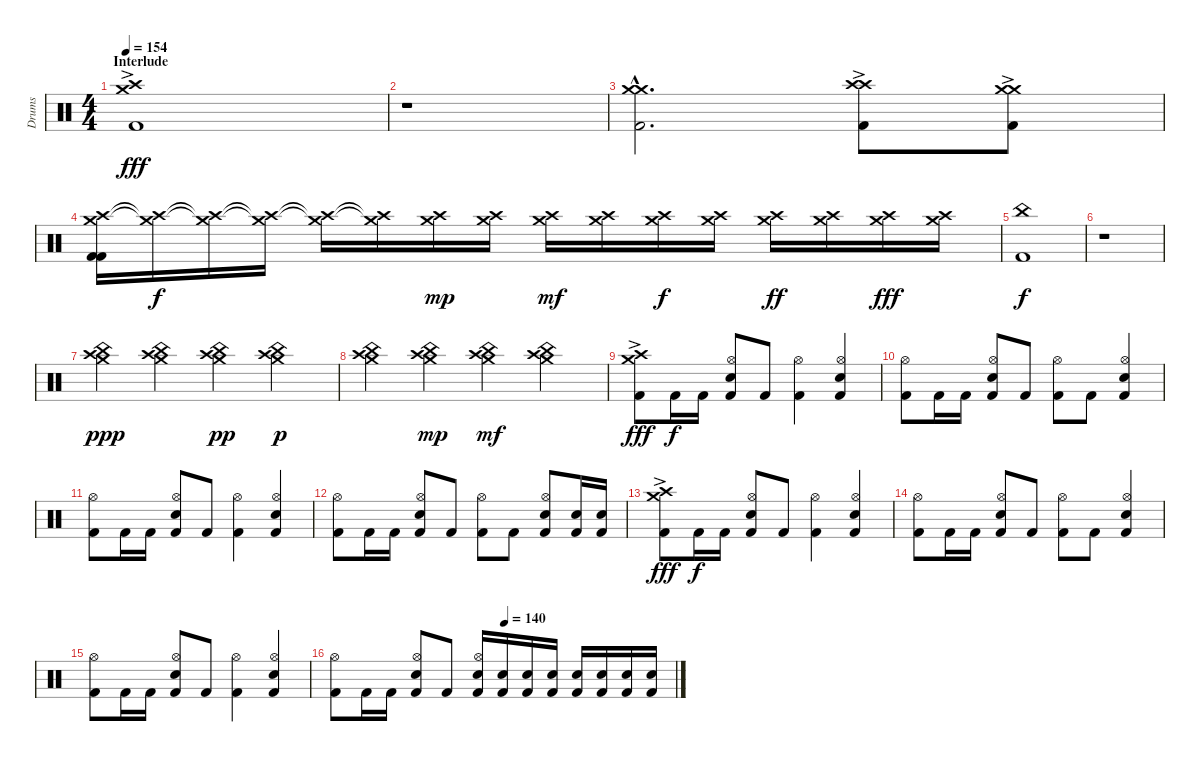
\track ("Drums" "Drums") {instrument percussion}
\staff {score}
\articulation defaults
\ts (4 4)
\section ("" "Interlude")
\tempo 154
\clef neutral
\ks c
("Crash high (hit)" "Crash medium (hit)"{ac} "Kick (hit) 2").1{dy fff} |
r.1 |
("Crash medium (hit)"{hac} "Crash medium (hit)"{hac} "Kick (hit) 2"{hac}).2{d} ("Crash high (hit)"{ac} "Crash high (hit)"{ac} "Kick (hit) 2").8 ("Crash medium (hit)"{ac} "Crash medium (hit)"{ac} "Kick (hit) 2").8 |
("Crash high (hit)" "Crash medium (hit)" "Kick (hit) 2" "Kick (hit) 2").16 ("Crash high (hit)"{t} "Crash medium (hit)"{t}).16{dy f} ("Crash high (hit)"{t} "Crash medium (hit)"{t}).16 ("Crash high (hit)"{t} "Crash medium (hit)"{t}).16 ("Crash high (hit)"{t} "Crash medium (hit)"{t}).16 ("Crash high (hit)"{t} "Crash medium (hit)"{t}).16 ("Crash high (hit)" "Crash medium (hit)").16{dy mp} ("Crash high (hit)" "Crash medium (hit)").16 ("Crash high (hit)" "Crash medium (hit)").16{dy mf} ("Crash high (hit)" "Crash medium (hit)").16 ("Crash high (hit)" "Crash medium (hit)").16{dy f} ("Crash high (hit)" "Crash medium (hit)").16 ("Crash high (hit)" "Crash medium (hit)").16{dy ff} ("Crash high (hit)" "Crash medium (hit)").16 ("Crash high (hit)" "Crash medium (hit)").16{dy fff} ("Crash high (hit)" "Crash medium (hit)").16 |
("China (hit)" "Kick (hit) 2").1{dy f} |
r.1 |
("Crash high (hit)" "Crash medium (hit)" "China (hit)").4{dy ppp} ("Crash high (hit)" "Crash medium (hit)" "China (hit)").4 ("Crash high (hit)" "Crash medium (hit)" "China (hit)").4{dy pp} ("Crash high (hit)" "Crash medium (hit)" "China (hit)").4{dy p} |
("Crash high (hit)" "Crash medium (hit)" "China (hit)").4 ("Crash high (hit)" "Crash medium (hit)" "China (hit)").4{dy mp} ("Crash high (hit)" "Crash medium (hit)" "China (hit)").4{dy mf} ("Crash high (hit)" "Crash medium (hit)" "China (hit)").4 |
("Crash medium (hit)"{ac} "Crash high (hit)"{ac} "Kick (hit) 2").8{dy fff} "Kick (hit) 2".16{dy f} "Kick (hit) 2".16 ("Hi-Hat (open)" "Electric Snare (hit)" "Kick (hit) 2").8 "Kick (hit) 2".8 ("Hi-Hat (open)" "Kick (hit) 2").4 ("Hi-Hat (open)" "Electric Snare (hit)" "Kick (hit) 2").4 |
("Hi-Hat (open)" "Kick (hit) 2").8 "Kick (hit) 2".16 "Kick (hit) 2".16 ("Hi-Hat (open)" "Electric Snare (hit)" "Kick (hit) 2").8 "Kick (hit) 2".8 ("Hi-Hat (open)" "Kick (hit) 2").8 "Kick (hit) 2".8 ("Hi-Hat (open)" "Electric Snare (hit)" "Kick (hit) 2").4 |
("Hi-Hat (open)" "Kick (hit) 2").8 "Kick (hit) 2".16 "Kick (hit) 2".16 ("Hi-Hat (open)" "Electric Snare (hit)" "Kick (hit) 2").8 "Kick (hit) 2".8 ("Hi-Hat (open)" "Kick (hit) 2").4 ("Hi-Hat (open)" "Electric Snare (hit)" "Kick (hit) 2").4 |
("Hi-Hat (open)" "Kick (hit) 2").8 "Kick (hit) 2".16 "Kick (hit) 2".16 ("Hi-Hat (open)" "Electric Snare (hit)" "Kick (hit) 2").8 "Kick (hit) 2".8 ("Hi-Hat (open)" "Kick (hit) 2").8 "Kick (hit) 2".8 ("Hi-Hat (open)" "Electric Snare (hit)" "Kick (hit) 2").8 ("Electric Snare (hit)" "Kick (hit) 2").16 ("Electric Snare (hit)" "Kick (hit) 2").16 |
("Crash medium (hit)"{ac} "Crash high (hit)"{ac} "Kick (hit) 2").8{dy fff} "Kick (hit) 2".16{dy f} "Kick (hit) 2".16 ("Hi-Hat (open)" "Electric Snare (hit)" "Kick (hit) 2").8 "Kick (hit) 2".8 ("Hi-Hat (open)" "Kick (hit) 2").4 ("Hi-Hat (open)" "Electric Snare (hit)" "Kick (hit) 2").4 |
("Hi-Hat (open)" "Kick (hit) 2").8 "Kick (hit) 2".16 "Kick (hit) 2".16 ("Hi-Hat (open)" "Electric Snare (hit)" "Kick (hit) 2").8 "Kick (hit) 2".8 ("Hi-Hat (open)" "Kick (hit) 2").8 "Kick (hit) 2".8 ("Hi-Hat (open)" "Electric Snare (hit)" "Kick (hit) 2").4 |
("Hi-Hat (open)" "Kick (hit) 2").8 "Kick (hit) 2".16 "Kick (hit) 2".16 ("Hi-Hat (open)" "Electric Snare (hit)" "Kick (hit) 2").8 "Kick (hit) 2".8 ("Hi-Hat (open)" "Kick (hit) 2").4 ("Hi-Hat (open)" "Electric Snare (hit)" "Kick (hit) 2").4 |
\tempo (140 0.5)
("Hi-Hat (open)" "Kick (hit) 2").8 "Kick (hit) 2".16 "Kick (hit) 2".16 ("Hi-Hat (open)" "Electric Snare (hit)" "Kick (hit) 2").8 "Kick (hit) 2".8 ("Hi-Hat (open)" "Electric Snare (hit)" "Kick (hit) 2").16 ("Electric Snare (hit)" "Kick (hit) 2").16 ("Electric Snare (hit)" "Kick (hit) 2").16 ("Electric Snare (hit)" "Kick (hit) 2").16 ("Electric Snare (hit)" "Kick (hit) 2").16 ("Electric Snare (hit)" "Kick (hit) 2").16 ("Electric Snare (hit)" "Kick (hit) 2").16 ("Electric Snare (hit)" "Kick (hit) 2").16
